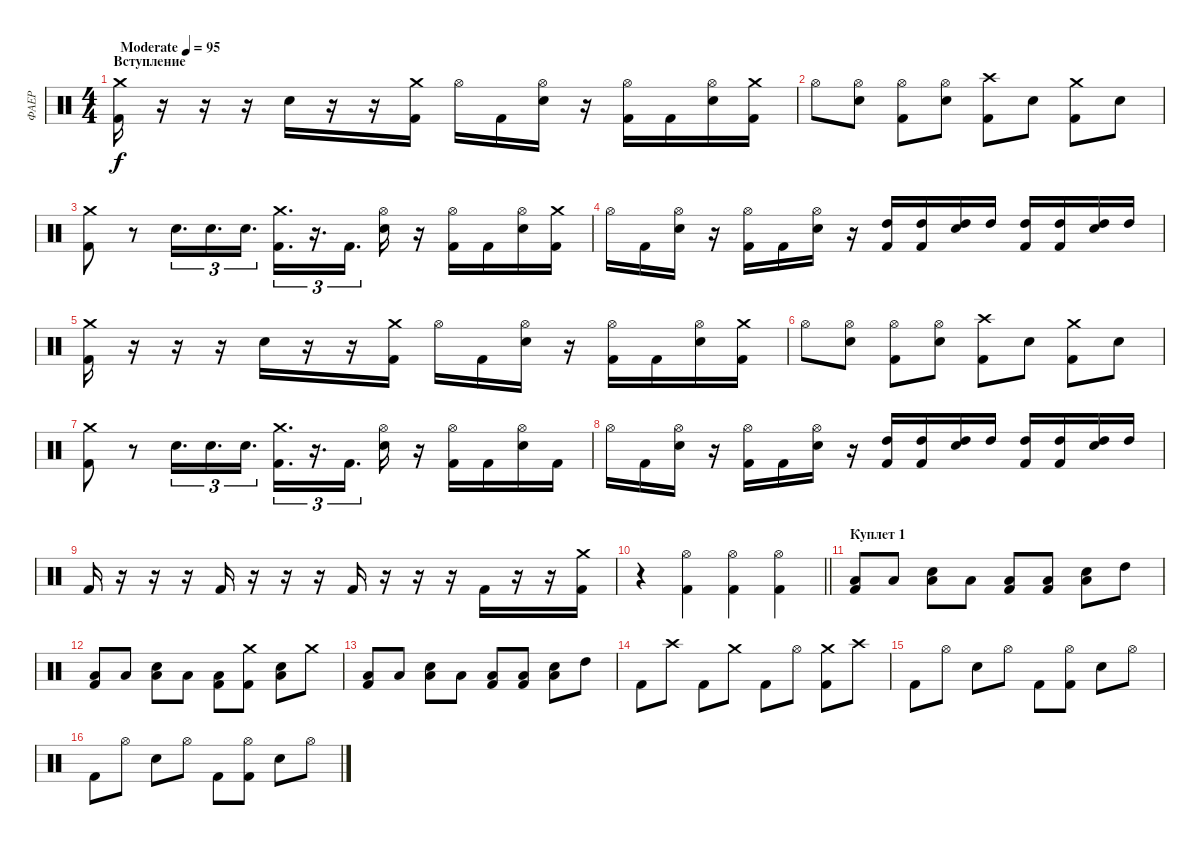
\track ("ФАЕР" "ФАЕР") {instrument percussion}
\staff {score}
\articulation defaults
\ts (4 4)
\section ("" "Вступление")
\tempo (95 "Moderate")
\clef neutral
\ks c
("Crash medium (hit)" "Kick (hit) 2").16{dy f} r.16 r.16 r.16 "Electric Snare (hit)".16 r.16 r.16 ("Crash medium (hit)" "Kick (hit) 2").16 "Hi-Hat (open)".16 "Kick (hit) 2".16 ("Hi-Hat (open)" "Electric Snare (hit)").16 r.16 ("Hi-Hat (open)" "Kick (hit) 2").16 "Kick (hit) 2".16 ("Hi-Hat (open)" "Electric Snare (hit)").16 ("Crash medium (hit)" "Kick (hit) 2").16 |
"Hi-Hat (open)".8 ("Hi-Hat (open)" "Electric Snare (hit)").8 ("Hi-Hat (open)" "Kick (hit) 2").8 ("Hi-Hat (open)" "Electric Snare (hit)").8 ("Crash high (hit)" "Kick (hit) 2").8 "Electric Snare (hit)".8 ("Crash medium (hit)" "Kick (hit) 2").8 "Electric Snare (hit)".8 |
("Crash medium (hit)" "Kick (hit) 2").8 r.8 "Electric Snare (hit)".16{d tu (3 2)} "Electric Snare (hit)".16{d tu (3 2)} "Electric Snare (hit)".16{d tu (3 2)} ("Crash medium (hit)" "Kick (hit) 2").16{d tu (3 2)} r.16{d tu (3 2)} "Kick (hit) 2".16{d tu (3 2)} ("Hi-Hat (open)" "Electric Snare (hit)").16 r.16 ("Hi-Hat (open)" "Kick (hit) 2").16 "Kick (hit) 2".16 ("Hi-Hat (open)" "Electric Snare (hit)").16 ("Crash medium (hit)" "Kick (hit) 2").16 |
"Hi-Hat (open)".16 "Kick (hit) 2".16 ("Hi-Hat (open)" "Electric Snare (hit)").16 r.16 ("Hi-Hat (open)" "Kick (hit) 2").16 "Kick (hit) 2".16 ("Hi-Hat (open)" "Electric Snare (hit)").16 r.16 ("High Tom (hit)" "Kick (hit) 2").16 ("High Tom (hit)" "Kick (hit) 2").16 ("High Tom (hit)" "Electric Snare (hit)").16 "High Tom (hit)".16 ("High Tom (hit)" "Kick (hit) 2").16 ("High Tom (hit)" "Kick (hit) 2").16 ("High Tom (hit)" "Electric Snare (hit)").16 "High Tom (hit)".16 |
("Crash medium (hit)" "Kick (hit) 2").16 r.16 r.16 r.16 "Electric Snare (hit)".16 r.16 r.16 ("Crash medium (hit)" "Kick (hit) 2").16 "Hi-Hat (open)".16 "Kick (hit) 2".16 ("Hi-Hat (open)" "Electric Snare (hit)").16 r.16 ("Hi-Hat (open)" "Kick (hit) 2").16 "Kick (hit) 2".16 ("Hi-Hat (open)" "Electric Snare (hit)").16 ("Crash medium (hit)" "Kick (hit) 2").16 |
"Hi-Hat (open)".8 ("Hi-Hat (open)" "Electric Snare (hit)").8 ("Hi-Hat (open)" "Kick (hit) 2").8 ("Hi-Hat (open)" "Electric Snare (hit)").8 ("Crash high (hit)" "Kick (hit) 2").8 "Electric Snare (hit)".8 ("Crash medium (hit)" "Kick (hit) 2").8 "Electric Snare (hit)".8 |
("Crash medium (hit)" "Kick (hit) 2").8 r.8 "Electric Snare (hit)".16{d tu (3 2)} "Electric Snare (hit)".16{d tu (3 2)} "Electric Snare (hit)".16{d tu (3 2)} ("Crash medium (hit)" "Kick (hit) 2").16{d tu (3 2)} r.16{d tu (3 2)} "Kick (hit) 2".16{d tu (3 2)} ("Hi-Hat (open)" "Electric Snare (hit)").16 r.16 ("Hi-Hat (open)" "Kick (hit) 2").16 "Kick (hit) 2".16 ("Hi-Hat (open)" "Electric Snare (hit)").16 "Kick (hit) 2".16 |
"Hi-Hat (open)".16 "Kick (hit) 2".16 ("Hi-Hat (open)" "Electric Snare (hit)").16 r.16 ("Hi-Hat (open)" "Kick (hit) 2").16 "Kick (hit) 2".16 ("Hi-Hat (open)" "Electric Snare (hit)").16 r.16 ("High Tom (hit)" "Kick (hit) 2").16 ("High Tom (hit)" "Kick (hit) 2").16 ("High Tom (hit)" "Electric Snare (hit)").16 "High Tom (hit)".16 ("High Tom (hit)" "Kick (hit) 2").16 ("High Tom (hit)" "Kick (hit) 2").16 ("High Tom (hit)" "Electric Snare (hit)").16 "High Tom (hit)".16 |
"Kick (hit) 2".16 r.16 r.16 r.16 "Kick (hit) 2".16 r.16 r.16 r.16 "Kick (hit) 2".16 r.16 r.16 r.16 "Kick (hit) 2".16 r.16 r.16 ("Crash medium (hit)" "Kick (hit) 2").16 |
\barLineRight lightlight
r.4 ("Hi-Hat (open)" "Kick (hit) 2").4 ("Hi-Hat (open)" "Kick (hit) 2").4 ("Hi-Hat (open)" "Kick (hit) 2").4 |
\section ("" "Куплет 1")
("Low Tom (hit)" "Kick (hit) 2").8 "Low Tom (hit)".8 ("Low Tom (hit)" "Electric Snare (hit)").8 "Low Tom (hit)".8 ("Low Tom (hit)" "Kick (hit) 2").8 ("Low Tom (hit)" "Kick (hit) 2").8 ("Low Tom (hit)" "Electric Snare (hit)").8 "High Tom (hit)".8 |
("Low Tom (hit)" "Kick (hit) 2").8 "Low Tom (hit)".8 ("Low Tom (hit)" "Electric Snare (hit)").8 "Low Tom (hit)".8 ("Low Tom (hit)" "Kick (hit) 2").8 ("Crash medium (hit)" "Kick (hit) 2").8 ("Low Tom (hit)" "Electric Snare (hit)").8 "Crash medium (hit)".8 |
("Low Tom (hit)" "Kick (hit) 2").8 "Low Tom (hit)".8 ("Low Tom (hit)" "Electric Snare (hit)").8 "Low Tom (hit)".8 ("Low Tom (hit)" "Kick (hit) 2").8 ("Low Tom (hit)" "Kick (hit) 2").8 ("Low Tom (hit)" "Electric Snare (hit)").8 "High Tom (hit)".8 |
"Kick (hit) 2".8 "Crash high (hit)".8 "Kick (hit) 2".8 "Crash medium (hit)".8 "Kick (hit) 2".8 "Hi-Hat (open)".8 ("Crash medium (hit)" "Kick (hit) 2").8 "Crash high (hit)".8 |
"Kick (hit) 2".8 "Hi-Hat (open)".8 "Electric Snare (hit)".8 "Hi-Hat (open)".8 "Kick (hit) 2".8 ("Hi-Hat (open)" "Kick (hit) 2").8 "Electric Snare (hit)".8 "Hi-Hat (open)".8 |
"Kick (hit) 2".8 "Hi-Hat (open)".8 "Electric Snare (hit)".8 "Hi-Hat (open)".8 "Kick (hit) 2".8 ("Hi-Hat (open)" "Kick (hit) 2").8 "Electric Snare (hit)".8 "Hi-Hat (open)".8
